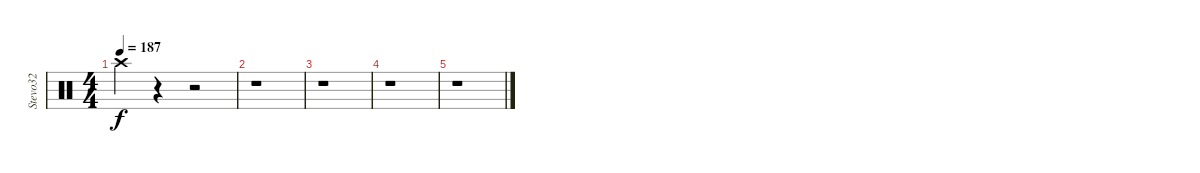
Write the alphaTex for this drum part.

\track ("Stevo32" "Stevo32") {instrument percussion}
\staff {score}
\articulation defaults
\ts (4 4)
\tempo 187
\clef neutral
\ks c "Crash high (hit)".4{dy f}
r.4 r.2 |
r.1 |
r.1 |
r.1 |
r.1
